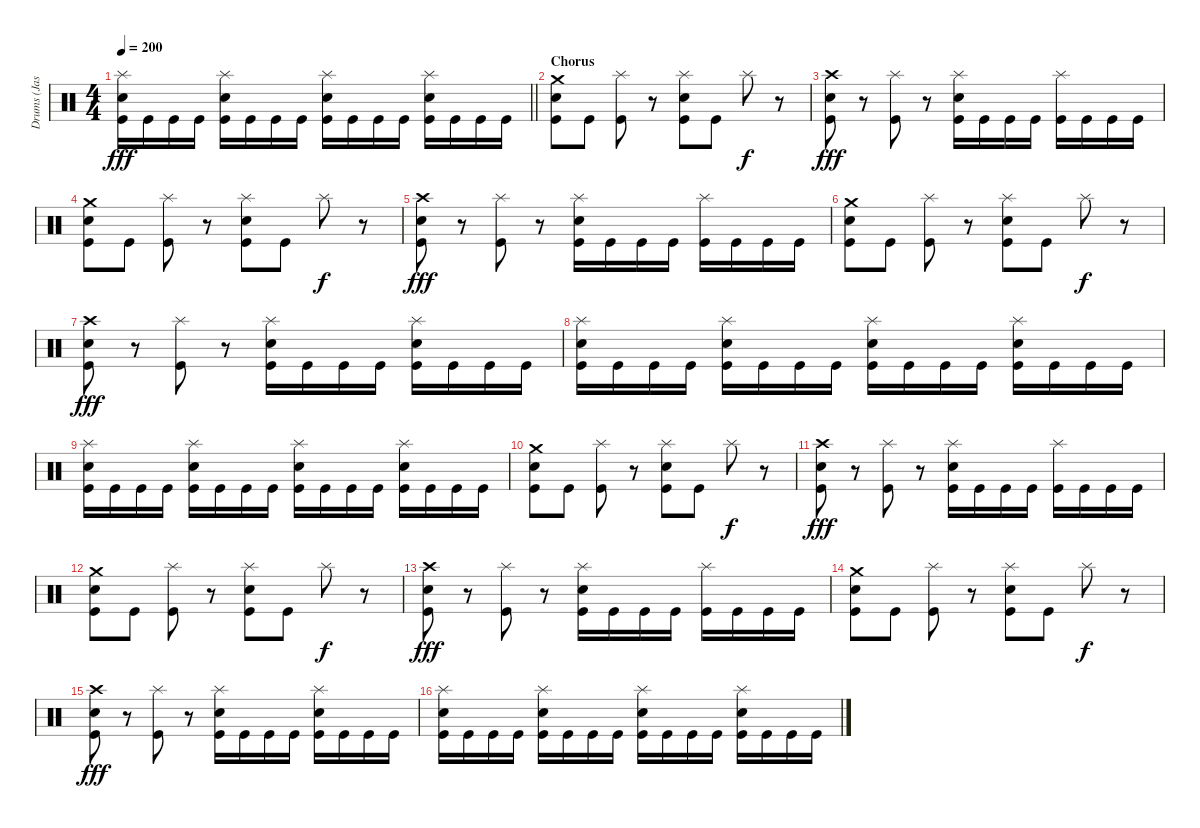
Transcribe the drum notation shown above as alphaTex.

\track ("Drums (Jason Costa)" "Drums (Jas") {instrument percussion}
\staff {score}
\articulation defaults
\ts (4 4)
\tempo 200
\clef neutral
\barLineRight lightlight
\ks c
("Splash (hit)" "Electric Snare (hit)" "Kick (hit)").16{dy fff} "Kick (hit)".16 "Kick (hit)".16 "Kick (hit)".16 ("Splash (hit)" "Electric Snare (hit)" "Kick (hit)").16 "Kick (hit)".16 "Kick (hit)".16 "Kick (hit)".16 ("Splash (hit)" "Electric Snare (hit)" "Kick (hit)").16 "Kick (hit)".16 "Kick (hit)".16 "Kick (hit)".16 ("Splash (hit)" "Electric Snare (hit)" "Kick (hit)").16 "Kick (hit)".16 "Kick (hit)".16 "Kick (hit)".16 |
\section ("" "Chorus")
("Crash medium (hit)" "Electric Snare (hit)" "Kick (hit)").8 "Kick (hit)".8 ("Splash (hit)" "Kick (hit)").8 r.8 ("Splash (hit)" "Electric Snare (hit)" "Kick (hit)").8 "Kick (hit)".8 "Splash (hit)".8{dy f} r.8 |
("Crash high (hit)" "Electric Snare (hit)" "Kick (hit)").8{dy fff} r.8 ("Splash (hit)" "Kick (hit)").8 r.8 ("Splash (hit)" "Electric Snare (hit)" "Kick (hit)").16 "Kick (hit)".16 "Kick (hit)".16 "Kick (hit)".16 ("Splash (hit)" "Kick (hit)").16 "Kick (hit)".16 "Kick (hit)".16 "Kick (hit)".16 |
("Crash medium (hit)" "Electric Snare (hit)" "Kick (hit)").8 "Kick (hit)".8 ("Splash (hit)" "Kick (hit)").8 r.8 ("Splash (hit)" "Electric Snare (hit)" "Kick (hit)").8 "Kick (hit)".8 "Splash (hit)".8{dy f} r.8 |
("Crash high (hit)" "Electric Snare (hit)" "Kick (hit)").8{dy fff} r.8 ("Splash (hit)" "Kick (hit)").8 r.8 ("Splash (hit)" "Electric Snare (hit)" "Kick (hit)").16 "Kick (hit)".16 "Kick (hit)".16 "Kick (hit)".16 ("Splash (hit)" "Kick (hit)").16 "Kick (hit)".16 "Kick (hit)".16 "Kick (hit)".16 |
("Crash medium (hit)" "Electric Snare (hit)" "Kick (hit)").8 "Kick (hit)".8 ("Splash (hit)" "Kick (hit)").8 r.8 ("Splash (hit)" "Electric Snare (hit)" "Kick (hit)").8 "Kick (hit)".8 "Splash (hit)".8{dy f} r.8 |
("Crash high (hit)" "Electric Snare (hit)" "Kick (hit)").8{dy fff} r.8 ("Splash (hit)" "Kick (hit)").8 r.8 ("Splash (hit)" "Electric Snare (hit)" "Kick (hit)").16 "Kick (hit)".16 "Kick (hit)".16 "Kick (hit)".16 ("Splash (hit)" "Electric Snare (hit)" "Kick (hit)").16 "Kick (hit)".16 "Kick (hit)".16 "Kick (hit)".16 |
("Splash (hit)" "Electric Snare (hit)" "Kick (hit)").16 "Kick (hit)".16 "Kick (hit)".16 "Kick (hit)".16 ("Splash (hit)" "Electric Snare (hit)" "Kick (hit)").16 "Kick (hit)".16 "Kick (hit)".16 "Kick (hit)".16 ("Splash (hit)" "Electric Snare (hit)" "Kick (hit)").16 "Kick (hit)".16 "Kick (hit)".16 "Kick (hit)".16 ("Splash (hit)" "Electric Snare (hit)" "Kick (hit)").16 "Kick (hit)".16 "Kick (hit)".16 "Kick (hit)".16 |
("Splash (hit)" "Electric Snare (hit)" "Kick (hit)").16 "Kick (hit)".16 "Kick (hit)".16 "Kick (hit)".16 ("Splash (hit)" "Electric Snare (hit)" "Kick (hit)").16 "Kick (hit)".16 "Kick (hit)".16 "Kick (hit)".16 ("Splash (hit)" "Electric Snare (hit)" "Kick (hit)").16 "Kick (hit)".16 "Kick (hit)".16 "Kick (hit)".16 ("Splash (hit)" "Electric Snare (hit)" "Kick (hit)").16 "Kick (hit)".16 "Kick (hit)".16 "Kick (hit)".16 |
("Crash medium (hit)" "Electric Snare (hit)" "Kick (hit)").8 "Kick (hit)".8 ("Splash (hit)" "Kick (hit)").8 r.8 ("Splash (hit)" "Electric Snare (hit)" "Kick (hit)").8 "Kick (hit)".8 "Splash (hit)".8{dy f} r.8 |
("Crash high (hit)" "Electric Snare (hit)" "Kick (hit)").8{dy fff} r.8 ("Splash (hit)" "Kick (hit)").8 r.8 ("Splash (hit)" "Electric Snare (hit)" "Kick (hit)").16 "Kick (hit)".16 "Kick (hit)".16 "Kick (hit)".16 ("Splash (hit)" "Kick (hit)").16 "Kick (hit)".16 "Kick (hit)".16 "Kick (hit)".16 |
("Crash medium (hit)" "Electric Snare (hit)" "Kick (hit)").8 "Kick (hit)".8 ("Splash (hit)" "Kick (hit)").8 r.8 ("Splash (hit)" "Electric Snare (hit)" "Kick (hit)").8 "Kick (hit)".8 "Splash (hit)".8{dy f} r.8 |
("Crash high (hit)" "Electric Snare (hit)" "Kick (hit)").8{dy fff} r.8 ("Splash (hit)" "Kick (hit)").8 r.8 ("Splash (hit)" "Electric Snare (hit)" "Kick (hit)").16 "Kick (hit)".16 "Kick (hit)".16 "Kick (hit)".16 ("Splash (hit)" "Kick (hit)").16 "Kick (hit)".16 "Kick (hit)".16 "Kick (hit)".16 |
("Crash medium (hit)" "Electric Snare (hit)" "Kick (hit)").8 "Kick (hit)".8 ("Splash (hit)" "Kick (hit)").8 r.8 ("Splash (hit)" "Electric Snare (hit)" "Kick (hit)").8 "Kick (hit)".8 "Splash (hit)".8{dy f} r.8 |
("Crash high (hit)" "Electric Snare (hit)" "Kick (hit)").8{dy fff} r.8 ("Splash (hit)" "Kick (hit)").8 r.8 ("Splash (hit)" "Electric Snare (hit)" "Kick (hit)").16 "Kick (hit)".16 "Kick (hit)".16 "Kick (hit)".16 ("Splash (hit)" "Electric Snare (hit)" "Kick (hit)").16 "Kick (hit)".16 "Kick (hit)".16 "Kick (hit)".16 |
("Splash (hit)" "Electric Snare (hit)" "Kick (hit)").16 "Kick (hit)".16 "Kick (hit)".16 "Kick (hit)".16 ("Splash (hit)" "Electric Snare (hit)" "Kick (hit)").16 "Kick (hit)".16 "Kick (hit)".16 "Kick (hit)".16 ("Splash (hit)" "Electric Snare (hit)" "Kick (hit)").16 "Kick (hit)".16 "Kick (hit)".16 "Kick (hit)".16 ("Splash (hit)" "Electric Snare (hit)" "Kick (hit)").16 "Kick (hit)".16 "Kick (hit)".16 "Kick (hit)".16
